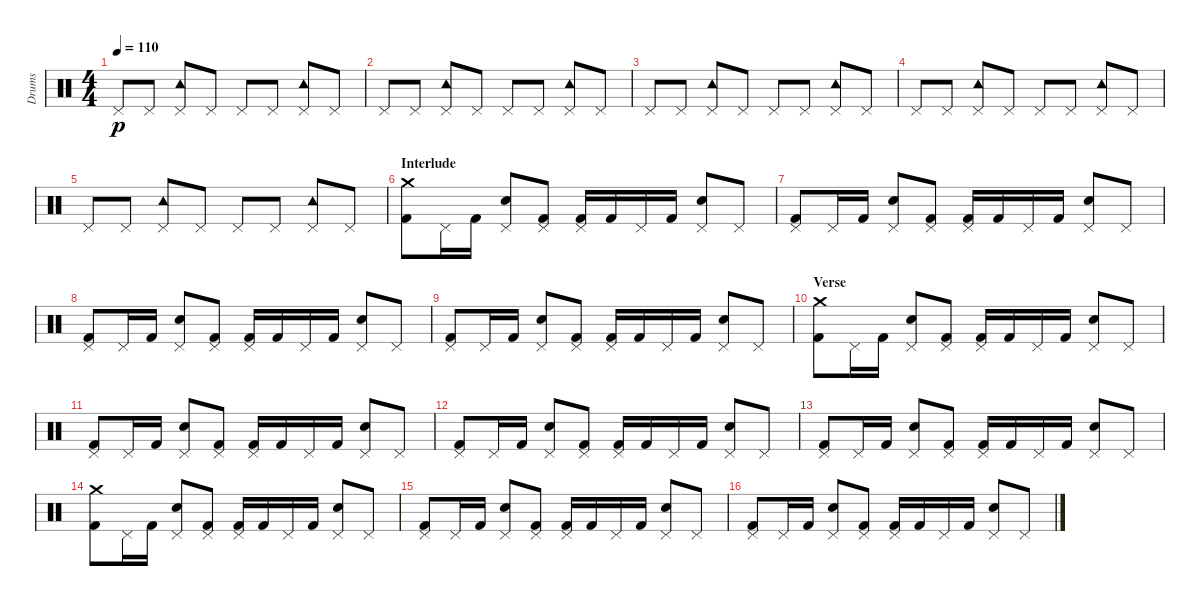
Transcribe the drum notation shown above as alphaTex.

\track ("Drums" "Drums") {instrument percussion}
\staff {score}
\articulation defaults
\ts (4 4)
\tempo 110
\clef neutral
\ks c "Pedal Hi-Hat (hit)".8{dy p} "Pedal Hi-Hat (hit)".8
("Pedal Hi-Hat (hit)" "Tambourine (hit)").8 "Pedal Hi-Hat (hit)".8 "Pedal Hi-Hat (hit)".8 "Pedal Hi-Hat (hit)".8 ("Pedal Hi-Hat (hit)" "Tambourine (hit)").8 "Pedal Hi-Hat (hit)".8 |
"Pedal Hi-Hat (hit)".8 "Pedal Hi-Hat (hit)".8 ("Pedal Hi-Hat (hit)" "Tambourine (hit)").8 "Pedal Hi-Hat (hit)".8 "Pedal Hi-Hat (hit)".8 "Pedal Hi-Hat (hit)".8 ("Pedal Hi-Hat (hit)" "Tambourine (hit)").8 "Pedal Hi-Hat (hit)".8 |
"Pedal Hi-Hat (hit)".8 "Pedal Hi-Hat (hit)".8 ("Pedal Hi-Hat (hit)" "Tambourine (hit)").8 "Pedal Hi-Hat (hit)".8 "Pedal Hi-Hat (hit)".8 "Pedal Hi-Hat (hit)".8 ("Pedal Hi-Hat (hit)" "Tambourine (hit)").8 "Pedal Hi-Hat (hit)".8 |
"Pedal Hi-Hat (hit)".8 "Pedal Hi-Hat (hit)".8 ("Pedal Hi-Hat (hit)" "Tambourine (hit)").8 "Pedal Hi-Hat (hit)".8 "Pedal Hi-Hat (hit)".8 "Pedal Hi-Hat (hit)".8 ("Pedal Hi-Hat (hit)" "Tambourine (hit)").8 "Pedal Hi-Hat (hit)".8 |
"Pedal Hi-Hat (hit)".8 "Pedal Hi-Hat (hit)".8 ("Pedal Hi-Hat (hit)" "Tambourine (hit)").8 "Pedal Hi-Hat (hit)".8 "Pedal Hi-Hat (hit)".8 "Pedal Hi-Hat (hit)".8 ("Pedal Hi-Hat (hit)" "Tambourine (hit)").8 "Pedal Hi-Hat (hit)".8 |
\section ("" "Interlude")
("Crash medium (hit)" "Kick (hit) 2").8 "Pedal Hi-Hat (hit)".16 "Kick (hit) 2".16 ("Pedal Hi-Hat (hit)" "Electric Snare (hit)").8 ("Pedal Hi-Hat (hit)" "Kick (hit) 2").8 ("Pedal Hi-Hat (hit)" "Kick (hit) 2").16 "Kick (hit) 2".16 "Pedal Hi-Hat (hit)".16 "Kick (hit) 2".16 ("Pedal Hi-Hat (hit)" "Electric Snare (hit)").8 "Pedal Hi-Hat (hit)".8 |
("Pedal Hi-Hat (hit)" "Kick (hit) 2").8 "Pedal Hi-Hat (hit)".16 "Kick (hit) 2".16 ("Pedal Hi-Hat (hit)" "Electric Snare (hit)").8 ("Pedal Hi-Hat (hit)" "Kick (hit) 2").8 ("Pedal Hi-Hat (hit)" "Kick (hit) 2").16 "Kick (hit) 2".16 "Pedal Hi-Hat (hit)".16 "Kick (hit) 2".16 ("Pedal Hi-Hat (hit)" "Electric Snare (hit)").8 "Pedal Hi-Hat (hit)".8 |
("Pedal Hi-Hat (hit)" "Kick (hit) 2").8 "Pedal Hi-Hat (hit)".16 "Kick (hit) 2".16 ("Pedal Hi-Hat (hit)" "Electric Snare (hit)").8 ("Pedal Hi-Hat (hit)" "Kick (hit) 2").8 ("Pedal Hi-Hat (hit)" "Kick (hit) 2").16 "Kick (hit) 2".16 "Pedal Hi-Hat (hit)".16 "Kick (hit) 2".16 ("Pedal Hi-Hat (hit)" "Electric Snare (hit)").8 "Pedal Hi-Hat (hit)".8 |
("Pedal Hi-Hat (hit)" "Kick (hit) 2").8 "Pedal Hi-Hat (hit)".16 "Kick (hit) 2".16 ("Pedal Hi-Hat (hit)" "Electric Snare (hit)").8 ("Pedal Hi-Hat (hit)" "Kick (hit) 2").8 ("Pedal Hi-Hat (hit)" "Kick (hit) 2").16 "Kick (hit) 2".16 "Pedal Hi-Hat (hit)".16 "Kick (hit) 2".16 ("Pedal Hi-Hat (hit)" "Electric Snare (hit)").8 "Pedal Hi-Hat (hit)".8 |
\section ("" "Verse")
("Crash medium (hit)" "Kick (hit) 2").8 "Pedal Hi-Hat (hit)".16 "Kick (hit) 2".16 ("Pedal Hi-Hat (hit)" "Electric Snare (hit)").8 ("Pedal Hi-Hat (hit)" "Kick (hit) 2").8 ("Pedal Hi-Hat (hit)" "Kick (hit) 2").16 "Kick (hit) 2".16 "Pedal Hi-Hat (hit)".16 "Kick (hit) 2".16 ("Pedal Hi-Hat (hit)" "Electric Snare (hit)").8 "Pedal Hi-Hat (hit)".8 |
("Pedal Hi-Hat (hit)" "Kick (hit) 2").8 "Pedal Hi-Hat (hit)".16 "Kick (hit) 2".16 ("Pedal Hi-Hat (hit)" "Electric Snare (hit)").8 ("Pedal Hi-Hat (hit)" "Kick (hit) 2").8 ("Pedal Hi-Hat (hit)" "Kick (hit) 2").16 "Kick (hit) 2".16 "Pedal Hi-Hat (hit)".16 "Kick (hit) 2".16 ("Pedal Hi-Hat (hit)" "Electric Snare (hit)").8 "Pedal Hi-Hat (hit)".8 |
("Pedal Hi-Hat (hit)" "Kick (hit) 2").8 "Pedal Hi-Hat (hit)".16 "Kick (hit) 2".16 ("Pedal Hi-Hat (hit)" "Electric Snare (hit)").8 ("Pedal Hi-Hat (hit)" "Kick (hit) 2").8 ("Pedal Hi-Hat (hit)" "Kick (hit) 2").16 "Kick (hit) 2".16 "Pedal Hi-Hat (hit)".16 "Kick (hit) 2".16 ("Pedal Hi-Hat (hit)" "Electric Snare (hit)").8 "Pedal Hi-Hat (hit)".8 |
("Pedal Hi-Hat (hit)" "Kick (hit) 2").8 "Pedal Hi-Hat (hit)".16 "Kick (hit) 2".16 ("Pedal Hi-Hat (hit)" "Electric Snare (hit)").8 ("Pedal Hi-Hat (hit)" "Kick (hit) 2").8 ("Pedal Hi-Hat (hit)" "Kick (hit) 2").16 "Kick (hit) 2".16 "Pedal Hi-Hat (hit)".16 "Kick (hit) 2".16 ("Pedal Hi-Hat (hit)" "Electric Snare (hit)").8 "Pedal Hi-Hat (hit)".8 |
("Crash medium (hit)" "Kick (hit) 2").8 "Pedal Hi-Hat (hit)".16 "Kick (hit) 2".16 ("Pedal Hi-Hat (hit)" "Electric Snare (hit)").8 ("Pedal Hi-Hat (hit)" "Kick (hit) 2").8 ("Pedal Hi-Hat (hit)" "Kick (hit) 2").16 "Kick (hit) 2".16 "Pedal Hi-Hat (hit)".16 "Kick (hit) 2".16 ("Pedal Hi-Hat (hit)" "Electric Snare (hit)").8 "Pedal Hi-Hat (hit)".8 |
("Pedal Hi-Hat (hit)" "Kick (hit) 2").8 "Pedal Hi-Hat (hit)".16 "Kick (hit) 2".16 ("Pedal Hi-Hat (hit)" "Electric Snare (hit)").8 ("Pedal Hi-Hat (hit)" "Kick (hit) 2").8 ("Pedal Hi-Hat (hit)" "Kick (hit) 2").16 "Kick (hit) 2".16 "Pedal Hi-Hat (hit)".16 "Kick (hit) 2".16 ("Pedal Hi-Hat (hit)" "Electric Snare (hit)").8 "Pedal Hi-Hat (hit)".8 |
("Pedal Hi-Hat (hit)" "Kick (hit) 2").8 "Pedal Hi-Hat (hit)".16 "Kick (hit) 2".16 ("Pedal Hi-Hat (hit)" "Electric Snare (hit)").8 ("Pedal Hi-Hat (hit)" "Kick (hit) 2").8 ("Pedal Hi-Hat (hit)" "Kick (hit) 2").16 "Kick (hit) 2".16 "Pedal Hi-Hat (hit)".16 "Kick (hit) 2".16 ("Pedal Hi-Hat (hit)" "Electric Snare (hit)").8 "Pedal Hi-Hat (hit)".8
